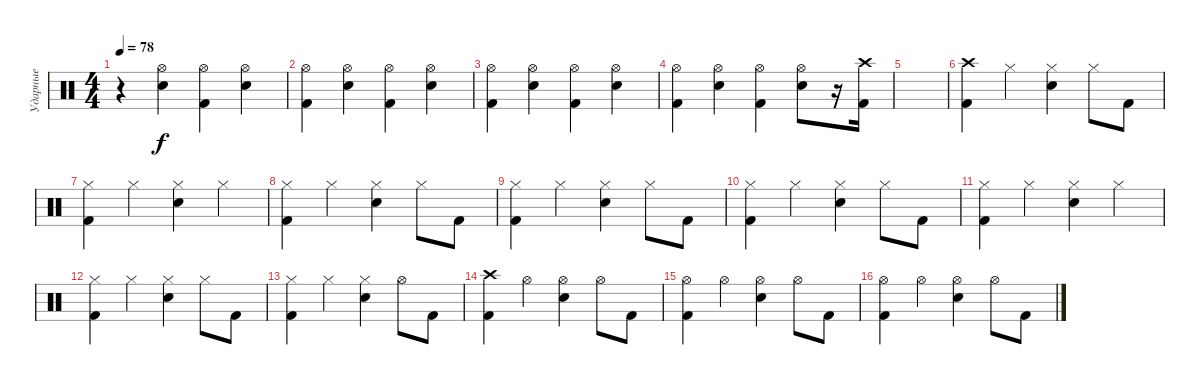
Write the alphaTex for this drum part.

\track ("Ударные" "Ударные") {instrument percussion}
\staff {score}
\articulation defaults
\ts (4 4)
\tempo 78
\clef neutral
\ks c
r.4{dy f} ("Hi-Hat (open)" "Snare (hit) 2").4 ("Hi-Hat (open)" "Kick (hit) 2").4 ("Hi-Hat (open)" "Snare (hit) 2").4 |
("Hi-Hat (open)" "Kick (hit) 2").4 ("Hi-Hat (open)" "Snare (hit) 2").4 ("Hi-Hat (open)" "Kick (hit) 2").4 ("Hi-Hat (open)" "Snare (hit) 2").4 |
("Hi-Hat (open)" "Kick (hit) 2").4 ("Hi-Hat (open)" "Snare (hit) 2").4 ("Hi-Hat (open)" "Kick (hit) 2").4 ("Hi-Hat (open)" "Snare (hit) 2").4 |
("Hi-Hat (open)" "Kick (hit) 2").4 ("Hi-Hat (open)" "Snare (hit) 2").4 ("Hi-Hat (open)" "Kick (hit) 2").4 ("Hi-Hat (open)" "Snare (hit) 2").8 r.16 ("Crash high (hit)" "Kick (hit) 2").16 |
|
("Crash high (hit)" "Kick (hit) 2").4 "Hi-Hat (closed)".4 ("Hi-Hat (closed)" "Snare (hit) 2").4 "Hi-Hat (closed)".8 "Kick (hit) 2".8 |
("Hi-Hat (closed)" "Kick (hit) 2").4 "Hi-Hat (closed)".4 ("Hi-Hat (closed)" "Snare (hit) 2").4 "Hi-Hat (closed)".4 |
("Hi-Hat (closed)" "Kick (hit) 2").4 "Hi-Hat (closed)".4 ("Hi-Hat (closed)" "Snare (hit) 2").4 "Hi-Hat (closed)".8 "Kick (hit) 2".8 |
("Hi-Hat (closed)" "Kick (hit) 2").4 "Hi-Hat (closed)".4 ("Hi-Hat (closed)" "Snare (hit) 2").4 "Hi-Hat (closed)".8 "Kick (hit) 2".8 |
("Hi-Hat (closed)" "Kick (hit) 2").4 "Hi-Hat (closed)".4 ("Hi-Hat (closed)" "Snare (hit) 2").4 "Hi-Hat (closed)".8 "Kick (hit) 2".8 |
("Hi-Hat (closed)" "Kick (hit) 2").4 "Hi-Hat (closed)".4 ("Hi-Hat (closed)" "Snare (hit) 2").4 "Hi-Hat (closed)".4 |
("Hi-Hat (closed)" "Kick (hit) 2").4 "Hi-Hat (closed)".4 ("Hi-Hat (closed)" "Snare (hit) 2").4 "Hi-Hat (closed)".8 "Kick (hit) 2".8 |
("Hi-Hat (closed)" "Kick (hit) 2").4 "Hi-Hat (closed)".4 ("Hi-Hat (closed)" "Snare (hit) 2").4 "Hi-Hat (open)".8 "Kick (hit) 2".8 |
("Crash high (hit)" "Kick (hit) 2").4 "Hi-Hat (open)".4 ("Hi-Hat (open)" "Snare (hit) 2").4 "Hi-Hat (open)".8 "Kick (hit) 2".8 |
("Hi-Hat (open)" "Kick (hit) 2").4 "Hi-Hat (open)".4 ("Hi-Hat (open)" "Snare (hit) 2").4 "Hi-Hat (open)".8 "Kick (hit) 2".8 |
("Hi-Hat (open)" "Kick (hit) 2").4 "Hi-Hat (open)".4 ("Hi-Hat (open)" "Snare (hit) 2").4 "Hi-Hat (open)".8 "Kick (hit) 2".8
